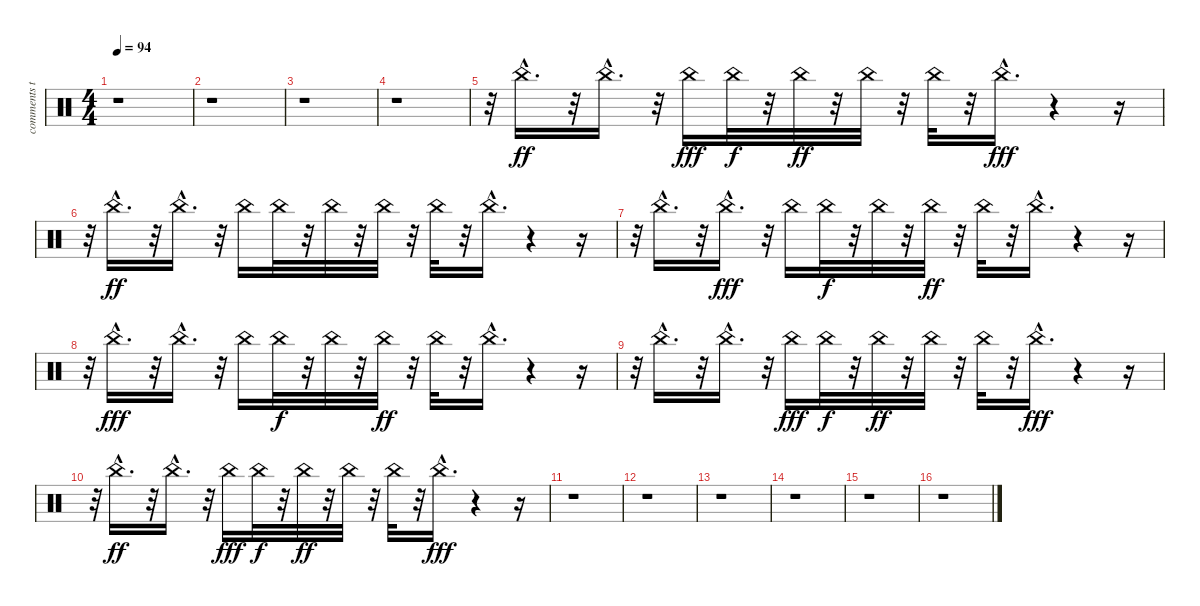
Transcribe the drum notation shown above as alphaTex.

\track ("comments to:" "comments t") {instrument percussion}
\staff {score}
\articulation defaults
\ts (4 4)
\tempo 94
\clef neutral
\ks c
r.1{dy fff} |
r.1 |
r.1 |
r.1 |
r.32 "China (choke)"{hac}.16{d dy ff} r.32 "China (choke)"{hac}.16{d} r.32 "China (choke)".16{dy fff} "China (choke)".32{dy f} r.32 "China (choke)".32{dy ff} r.32 "China (choke)".32 r.32 "China (choke)".32 r.32 "China (choke)"{hac}.16{d dy fff} r.4 r.16 |
r.32 "China (choke)"{hac}.16{d dy ff} r.32 "China (choke)"{hac}.16{d} r.32 "China (choke)".16 "China (choke)".32 r.32 "China (choke)".32 r.32 "China (choke)".32 r.32 "China (choke)".32 r.32 "China (choke)"{hac}.16{d} r.4 r.16 |
r.32 "China (choke)"{hac}.16{d} r.32 "China (choke)"{hac}.16{d dy fff} r.32 "China (choke)".16 "China (choke)".32{dy f} r.32 "China (choke)".32 r.32 "China (choke)".32{dy ff} r.32 "China (choke)".32 r.32 "China (choke)"{hac}.16{d} r.4 r.16 |
r.32 "China (choke)"{hac}.16{d dy fff} r.32 "China (choke)"{hac}.16{d} r.32 "China (choke)".16 "China (choke)".32{dy f} r.32 "China (choke)".32 r.32 "China (choke)".32{dy ff} r.32 "China (choke)".32 r.32 "China (choke)"{hac}.16{d} r.4 r.16 |
r.32 "China (choke)"{hac}.16{d} r.32 "China (choke)"{hac}.16{d} r.32 "China (choke)".16{dy fff} "China (choke)".32{dy f} r.32 "China (choke)".32{dy ff} r.32 "China (choke)".32 r.32 "China (choke)".32 r.32 "China (choke)"{hac}.16{d dy fff} r.4 r.16 |
r.32 "China (choke)"{hac}.16{d dy ff} r.32 "China (choke)"{hac}.16{d} r.32 "China (choke)".16{dy fff} "China (choke)".32{dy f} r.32 "China (choke)".32{dy ff} r.32 "China (choke)".32 r.32 "China (choke)".32 r.32 "China (choke)"{hac}.16{d dy fff} r.4 r.16 |
r.1 |
r.1 |
r.1 |
r.1 |
r.1 |
r.1
